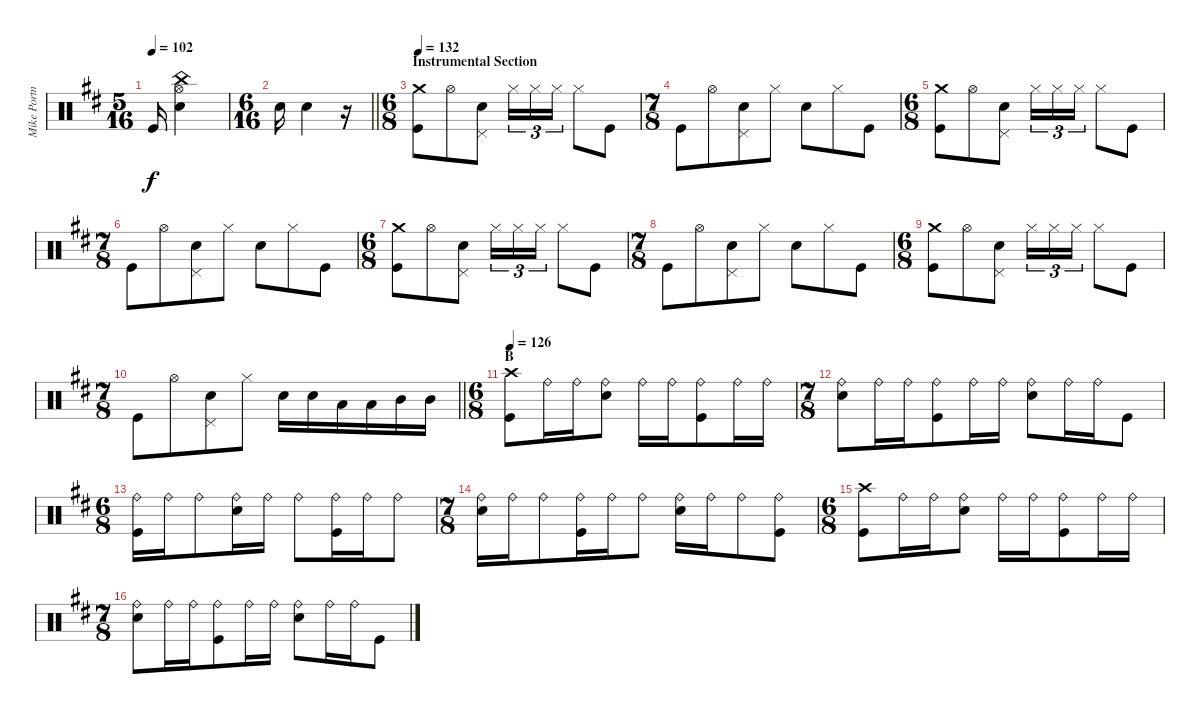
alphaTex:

\track ("Mike Portnoy" "Mike Portn") {instrument percussion}
\staff {score}
\articulation defaults
\ts (5 16)
\tempo 102
\clef neutral
\ks bminor "Kick (hit)".16{dy f}
("Snare (hit) 2" "Hi-Hat (open)" "China (hit)").4 |
\ts (6 16)
\barLineRight lightlight "Snare (hit) 2".16 "Snare (hit) 2".4
r.16 |
\ts (6 8)
\section ("" "Instrumental Section")
\tempo 132
("Crash medium (hit)" "Kick (hit)").8 "Hi-Hat (open)".8 ("Snare (hit) 2" "Pedal Hi-Hat (hit)").8 "Hi-Hat (closed)".16{tu (3 2)} "Hi-Hat (closed)".16{tu (3 2)} "Hi-Hat (closed)".16{tu (3 2)} "Hi-Hat (closed)".8 "Kick (hit)".8 |
\ts (7 8)
"Kick (hit)".8 "Hi-Hat (open)".8 ("Snare (hit) 2" "Pedal Hi-Hat (hit)").8 "Hi-Hat (closed)".8 "Snare (hit) 2".8 "Hi-Hat (closed)".8 "Kick (hit)".8 |
\ts (6 8)
("Crash medium (hit)" "Kick (hit)").8 "Hi-Hat (open)".8 ("Snare (hit) 2" "Pedal Hi-Hat (hit)").8 "Hi-Hat (closed)".16{tu (3 2)} "Hi-Hat (closed)".16{tu (3 2)} "Hi-Hat (closed)".16{tu (3 2)} "Hi-Hat (closed)".8 "Kick (hit)".8 |
\ts (7 8)
"Kick (hit)".8 "Hi-Hat (open)".8 ("Snare (hit) 2" "Pedal Hi-Hat (hit)").8 "Hi-Hat (closed)".8 "Snare (hit) 2".8 "Hi-Hat (closed)".8 "Kick (hit)".8 |
\ts (6 8)
("Crash medium (hit)" "Kick (hit)").8 "Hi-Hat (open)".8 ("Snare (hit) 2" "Pedal Hi-Hat (hit)").8 "Hi-Hat (closed)".16{tu (3 2)} "Hi-Hat (closed)".16{tu (3 2)} "Hi-Hat (closed)".16{tu (3 2)} "Hi-Hat (closed)".8 "Kick (hit)".8 |
\ts (7 8)
"Kick (hit)".8 "Hi-Hat (open)".8 ("Snare (hit) 2" "Pedal Hi-Hat (hit)").8 "Hi-Hat (closed)".8 "Snare (hit) 2".8 "Hi-Hat (closed)".8 "Kick (hit)".8 |
\ts (6 8)
("Crash medium (hit)" "Kick (hit)").8 "Hi-Hat (open)".8 ("Snare (hit) 2" "Pedal Hi-Hat (hit)").8 "Hi-Hat (closed)".16{tu (3 2)} "Hi-Hat (closed)".16{tu (3 2)} "Hi-Hat (closed)".16{tu (3 2)} "Hi-Hat (closed)".8 "Kick (hit)".8 |
\ts (7 8)
\barLineRight lightlight "Kick (hit)".8 "Hi-Hat (open)".8
("Snare (hit) 2" "Pedal Hi-Hat (hit)").8 "Hi-Hat (closed)".8 "Electric Snare (hit)".16 "Electric Snare (hit)".16 "Low Tom (hit)".16 "Low Tom (hit)".16 "Mid Tom (hit)".16 "Mid Tom (hit)".16 |
\ts (6 8)
\section ("" "B")
\tempo 126
("Crash high (hit)" "Kick (hit)").8 "Ride (bell)".16 "Ride (bell)".16 ("Ride (bell)" "Snare (hit) 2").8 "Ride (bell)".16 "Ride (bell)".16 ("Ride (bell)" "Kick (hit)").8 "Ride (bell)".16 "Ride (bell)".16 |
\ts (7 8)
("Ride (bell)" "Snare (hit) 2").8 "Ride (bell)".16 "Ride (bell)".16 ("Ride (bell)" "Kick (hit)").8 "Ride (bell)".16 "Ride (bell)".16 ("Ride (bell)" "Snare (hit) 2").8 "Ride (bell)".16 "Ride (bell)".16 "Kick (hit)".8 |
\ts (6 8)
("Ride (bell)" "Kick (hit)").16 "Ride (bell)".16 "Ride (bell)".8 ("Ride (bell)" "Snare (hit) 2").16 "Ride (bell)".16 "Ride (bell)".8 ("Ride (bell)" "Kick (hit)").16 "Ride (bell)".16 "Ride (bell)".8 |
\ts (7 8)
("Ride (bell)" "Snare (hit) 2").16 "Ride (bell)".16 "Ride (bell)".8 ("Ride (bell)" "Kick (hit)").16 "Ride (bell)".16 "Ride (bell)".8 ("Ride (bell)" "Snare (hit) 2").16 "Ride (bell)".16 "Ride (bell)".8 ("Ride (bell)" "Kick (hit)").8 |
\ts (6 8)
("Crash high (hit)" "Kick (hit)").8 "Ride (bell)".16 "Ride (bell)".16 ("Ride (bell)" "Snare (hit) 2").8 "Ride (bell)".16 "Ride (bell)".16 ("Ride (bell)" "Kick (hit)").8 "Ride (bell)".16 "Ride (bell)".16 |
\ts (7 8)
("Ride (bell)" "Snare (hit) 2").8 "Ride (bell)".16 "Ride (bell)".16 ("Ride (bell)" "Kick (hit)").8 "Ride (bell)".16 "Ride (bell)".16 ("Ride (bell)" "Snare (hit) 2").8 "Ride (bell)".16 "Ride (bell)".16 "Kick (hit)".8
